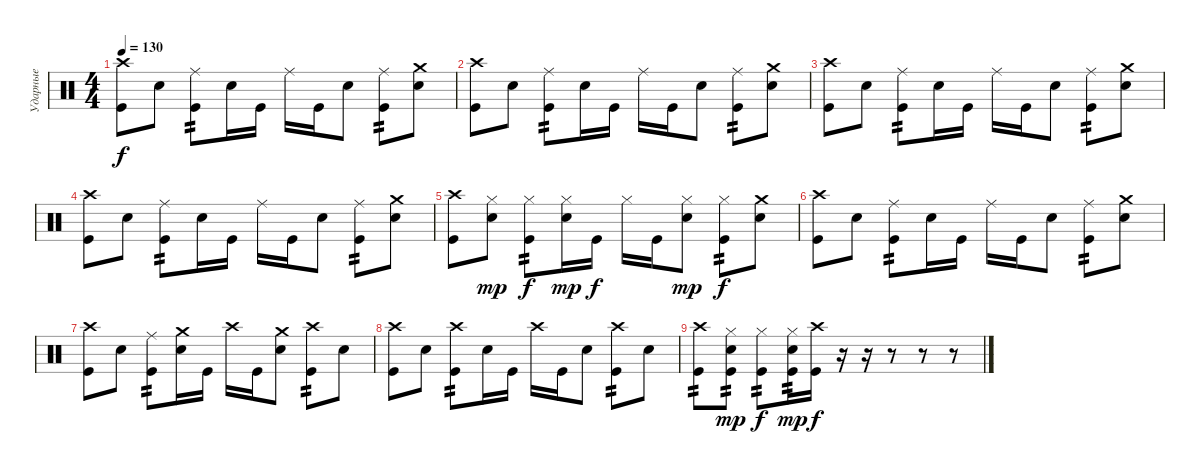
\track ("Ударные" "Ударные") {instrument percussion}
\staff {score}
\articulation defaults
\ts (4 4)
\tempo 130
\clef neutral
\ks c
("Crash high (hit)" "Kick (hit)").8{dy f} "Snare (hit) 2".8 ("Ride (middle)" "Kick (hit)").8{tp 2} "Snare (hit) 2".16 "Kick (hit)".16 "Ride (middle)".16 "Kick (hit)".16 "Snare (hit) 2".8 ("Ride (middle)" "Kick (hit)").8{tp 2} ("Crash medium (hit)" "Snare (hit) 2").8 |
("Crash high (hit)" "Kick (hit)").8 "Snare (hit) 2".8 ("Ride (middle)" "Kick (hit)").8{tp 2} "Snare (hit) 2".16 "Kick (hit)".16 "Ride (middle)".16 "Kick (hit)".16 "Snare (hit) 2".8 ("Ride (middle)" "Kick (hit)").8{tp 2} ("Crash medium (hit)" "Snare (hit) 2").8 |
("Crash high (hit)" "Kick (hit)").8 "Snare (hit) 2".8 ("Ride (middle)" "Kick (hit)").8{tp 2} "Snare (hit) 2".16 "Kick (hit)".16 "Ride (middle)".16 "Kick (hit)".16 "Snare (hit) 2".8 ("Ride (middle)" "Kick (hit)").8{tp 2} ("Crash medium (hit)" "Snare (hit) 2").8 |
("Crash high (hit)" "Kick (hit)").8 "Snare (hit) 2".8 ("Ride (middle)" "Kick (hit)").8{tp 2} "Snare (hit) 2".16 "Kick (hit)".16 "Ride (middle)".16 "Kick (hit)".16 "Snare (hit) 2".8 ("Ride (middle)" "Kick (hit)").8{tp 2} ("Crash medium (hit)" "Snare (hit) 2").8 |
("Crash high (hit)" "Kick (hit)").8 ("Hi-Hat (closed)" "Snare (hit) 2").8{dy mp} ("Hi-Hat (closed)" "Kick (hit)").8{tp 2 dy f} ("Hi-Hat (closed)" "Snare (hit) 2").16{dy mp} "Kick (hit)".16{dy f} "Hi-Hat (closed)".16 "Kick (hit)".16 ("Hi-Hat (closed)" "Snare (hit) 2").8{dy mp} ("Hi-Hat (closed)" "Kick (hit)").8{tp 2 dy f} ("Crash medium (hit)" "Snare (hit) 2").8 |
("Crash high (hit)" "Kick (hit)").8 "Snare (hit) 2".8 ("Ride (middle)" "Kick (hit)").8{tp 2} "Snare (hit) 2".16 "Kick (hit)".16 "Ride (middle)".16 "Kick (hit)".16 "Snare (hit) 2".8 ("Ride (middle)" "Kick (hit)").8{tp 2} ("Crash medium (hit)" "Snare (hit) 2").8 |
("Crash high (hit)" "Kick (hit)").8 "Snare (hit) 2".8 ("Ride (middle)" "Kick (hit)").8{tp 2} ("Crash medium (hit)" "Snare (hit) 2").16 "Kick (hit)".16 "Crash high (hit)".16 "Kick (hit)".16 ("Crash medium (hit)" "Snare (hit) 2").8 ("Crash high (hit)" "Kick (hit)").8{tp 2} "Snare (hit) 2".8 |
("Crash high (hit)" "Kick (hit)").8 "Snare (hit) 2".8 ("Crash high (hit)" "Kick (hit)").8{tp 2} "Snare (hit) 2".16 "Kick (hit)".16 "Crash high (hit)".16 "Kick (hit)".16 "Snare (hit) 2".8 ("Crash high (hit)" "Kick (hit)").8{tp 2} "Snare (hit) 2".8 |
("Crash high (hit)" "Kick (hit)").8{tp 2} ("Hi-Hat (closed)" "Snare (hit) 2" "Kick (hit)").8{tp 2 dy mp} ("Hi-Hat (closed)" "Kick (hit)").8{tp 2 dy f} ("Hi-Hat (closed)" "Snare (hit) 2" "Kick (hit)").16{tp 2 dy mp} ("Crash high (hit)" "Kick (hit)").16{dy f} r.16 r.16 r.8 r.8 r.8
